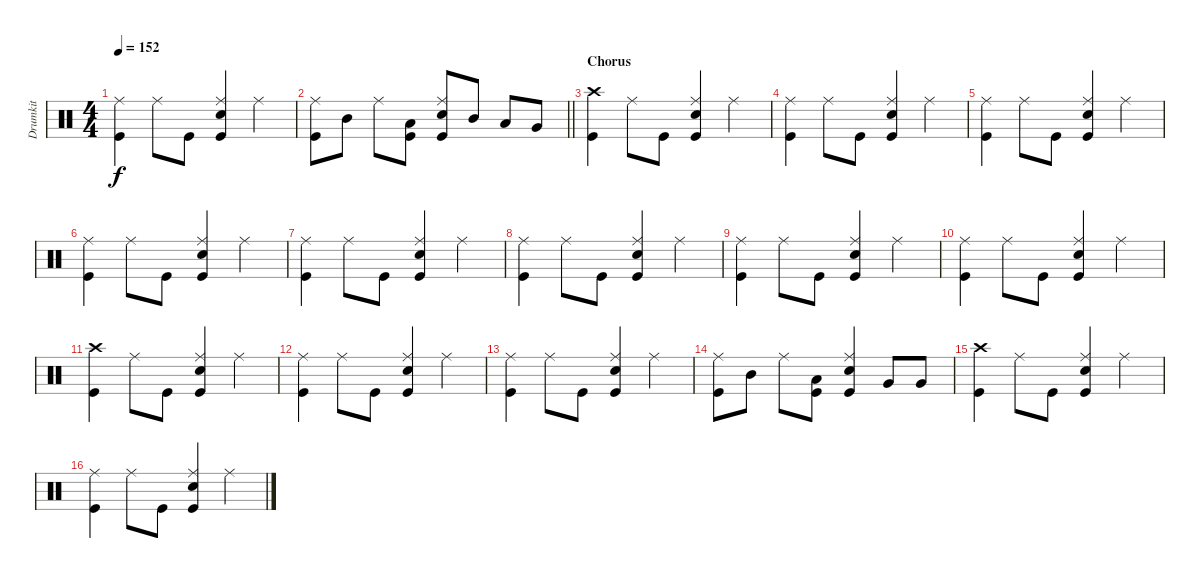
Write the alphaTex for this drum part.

\track ("Drumkit" "Drumkit") {instrument percussion}
\staff {score}
\articulation defaults
\ts (4 4)
\tempo 152
\clef neutral
\ks c
("Kick (hit)" "Ride (middle)").4{dy f} "Ride (middle)".8 "Kick (hit)".8 ("Snare (hit) 2" "Ride (middle)" "Kick (hit)").4 "Ride (middle)".4 |
\barLineRight lightlight
("Kick (hit)" "Ride (middle)").8 "Mid Tom (hit)".8 "Ride (middle)".8 ("Kick (hit)" "Low Tom (hit)").8 ("Snare (hit) 2" "Ride (middle)" "Kick (hit)").8 "Mid Tom (hit)".8 "Low Tom (hit)".8 "Very Low Tom (hit)".8 |
\section ("" "Chorus")
("Crash high (hit)" "Kick (hit)").4 "Ride (middle)".8 "Kick (hit)".8 ("Snare (hit) 2" "Ride (middle)" "Kick (hit)").4 "Ride (middle)".4 |
("Kick (hit)" "Ride (middle)").4 "Ride (middle)".8 "Kick (hit)".8 ("Snare (hit) 2" "Ride (middle)" "Kick (hit)").4 "Ride (middle)".4 |
("Kick (hit)" "Ride (middle)").4 "Ride (middle)".8 "Kick (hit)".8 ("Snare (hit) 2" "Ride (middle)" "Kick (hit)").4 "Ride (middle)".4 |
("Kick (hit)" "Ride (middle)").4 "Ride (middle)".8 "Kick (hit)".8 ("Snare (hit) 2" "Ride (middle)" "Kick (hit)").4 "Ride (middle)".4 |
("Kick (hit)" "Ride (middle)").4 "Ride (middle)".8 "Kick (hit)".8 ("Snare (hit) 2" "Ride (middle)" "Kick (hit)").4 "Ride (middle)".4 |
("Kick (hit)" "Ride (middle)").4 "Ride (middle)".8 "Kick (hit)".8 ("Snare (hit) 2" "Ride (middle)" "Kick (hit)").4 "Ride (middle)".4 |
("Kick (hit)" "Ride (middle)").4 "Ride (middle)".8 "Kick (hit)".8 ("Snare (hit) 2" "Ride (middle)" "Kick (hit)").4 "Ride (middle)".4 |
("Kick (hit)" "Ride (middle)").4 "Ride (middle)".8 "Kick (hit)".8 ("Snare (hit) 2" "Ride (middle)" "Kick (hit)").4 "Ride (middle)".4 |
("Crash high (hit)" "Kick (hit)").4 "Ride (middle)".8 "Kick (hit)".8 ("Snare (hit) 2" "Ride (middle)" "Kick (hit)").4 "Ride (middle)".4 |
("Kick (hit)" "Ride (middle)").4 "Ride (middle)".8 "Kick (hit)".8 ("Snare (hit) 2" "Ride (middle)" "Kick (hit)").4 "Ride (middle)".4 |
("Kick (hit)" "Ride (middle)").4 "Ride (middle)".8 "Kick (hit)".8 ("Snare (hit) 2" "Ride (middle)" "Kick (hit)").4 "Ride (middle)".4 |
("Kick (hit)" "Ride (middle)").8 "Mid Tom (hit)".8 "Ride (middle)".8 ("Kick (hit)" "Low Tom (hit)").8 ("Snare (hit) 2" "Ride (middle)" "Kick (hit)").4 "Very Low Tom (hit)".8 "Very Low Tom (hit)".8 |
("Crash high (hit)" "Kick (hit)").4 "Ride (middle)".8 "Kick (hit)".8 ("Snare (hit) 2" "Ride (middle)" "Kick (hit)").4 "Ride (middle)".4 |
("Kick (hit)" "Ride (middle)").4 "Ride (middle)".8 "Kick (hit)".8 ("Snare (hit) 2" "Ride (middle)" "Kick (hit)").4 "Ride (middle)".4
